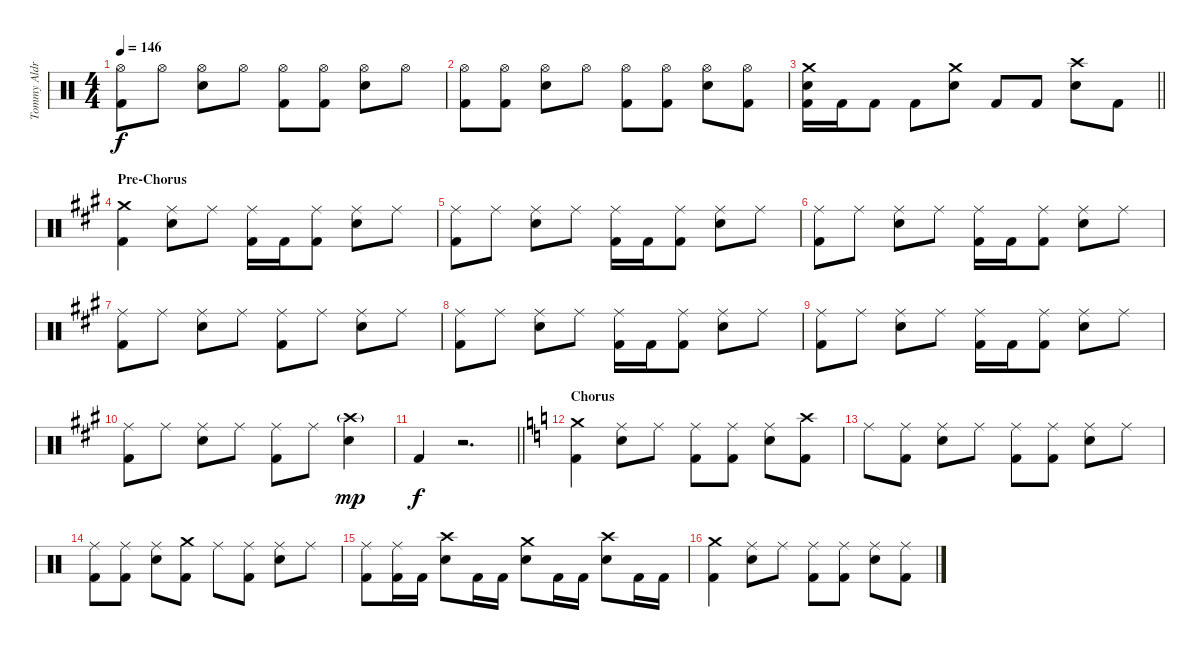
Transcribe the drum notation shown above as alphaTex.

\track ("Tommy Aldridge Drums" "Tommy Aldr") {instrument percussion}
\staff {score}
\articulation defaults
\ts (4 4)
\tempo 146
\clef neutral
\ks aminor
("Hi-Hat (open)" "Kick (hit) 2").8{dy f} "Hi-Hat (open)".8 ("Hi-Hat (open)" "Electric Snare (hit)").8 "Hi-Hat (open)".8 ("Hi-Hat (open)" "Kick (hit) 2").8 ("Hi-Hat (open)" "Kick (hit) 2").8 ("Hi-Hat (open)" "Electric Snare (hit)").8 "Hi-Hat (open)".8 |
("Hi-Hat (open)" "Kick (hit) 2").8 ("Hi-Hat (open)" "Kick (hit) 2").8 ("Hi-Hat (open)" "Electric Snare (hit)").8 "Hi-Hat (open)".8 ("Hi-Hat (open)" "Kick (hit) 2").8 ("Hi-Hat (open)" "Kick (hit) 2").8 ("Hi-Hat (open)" "Electric Snare (hit)").8 ("Hi-Hat (open)" "Kick (hit) 2").8 |
\barLineRight lightlight
("Crash medium (hit)" "Electric Snare (hit)" "Kick (hit) 2").16 "Kick (hit) 2".16 "Kick (hit) 2".8 "Kick (hit) 2".8 ("Crash medium (hit)" "Electric Snare (hit)").8 "Kick (hit) 2".8 "Kick (hit) 2".8 ("Crash high (hit)" "Electric Snare (hit)").8 "Kick (hit) 2".8 |
\section ("" "Pre-Chorus")
\ks f#minor
("Crash medium (hit)" "Kick (hit) 2").4 ("Ride (middle)" "Electric Snare (hit)").8 "Ride (middle)".8 ("Ride (middle)" "Kick (hit) 2").16 "Kick (hit) 2".16 ("Ride (middle)" "Kick (hit) 2").8 ("Ride (middle)" "Electric Snare (hit)").8 "Ride (middle)".8 |
("Ride (middle)" "Kick (hit) 2").8 "Ride (middle)".8 ("Ride (middle)" "Electric Snare (hit)").8 "Ride (middle)".8 ("Ride (middle)" "Kick (hit) 2").16 "Kick (hit) 2".16 ("Ride (middle)" "Kick (hit) 2").8 ("Ride (middle)" "Electric Snare (hit)").8 "Ride (middle)".8 |
("Ride (middle)" "Kick (hit) 2").8 "Ride (middle)".8 ("Ride (middle)" "Electric Snare (hit)").8 "Ride (middle)".8 ("Ride (middle)" "Kick (hit) 2").16 "Kick (hit) 2".16 ("Ride (middle)" "Kick (hit) 2").8 ("Ride (middle)" "Electric Snare (hit)").8 "Ride (middle)".8 |
("Ride (middle)" "Kick (hit) 2").8 "Ride (middle)".8 ("Ride (middle)" "Electric Snare (hit)").8 "Ride (middle)".8 ("Ride (middle)" "Kick (hit) 2").8 "Ride (middle)".8 ("Ride (middle)" "Electric Snare (hit)").8 "Ride (middle)".8 |
("Ride (middle)" "Kick (hit) 2").8 "Ride (middle)".8 ("Ride (middle)" "Electric Snare (hit)").8 "Ride (middle)".8 ("Ride (middle)" "Kick (hit) 2").16 "Kick (hit) 2".16 ("Ride (middle)" "Kick (hit) 2").8 ("Ride (middle)" "Electric Snare (hit)").8 "Ride (middle)".8 |
("Ride (middle)" "Kick (hit) 2").8 "Ride (middle)".8 ("Ride (middle)" "Electric Snare (hit)").8 "Ride (middle)".8 ("Ride (middle)" "Kick (hit) 2").16 "Kick (hit) 2".16 ("Ride (middle)" "Kick (hit) 2").8 ("Ride (middle)" "Electric Snare (hit)").8 "Ride (middle)".8 |
("Ride (middle)" "Kick (hit) 2").8 "Ride (middle)".8 ("Ride (middle)" "Electric Snare (hit)").8 "Ride (middle)".8 ("Ride (middle)" "Kick (hit) 2").8 "Ride (middle)".8 ("Crash high (hit)"{g} "Electric Snare (hit)").4{dy mp} |
\barLineRight lightlight "Kick (hit) 2".4{dy f}
r.2{d} |
\section ("" "Chorus")
\ks aminor
("Crash medium (hit)" "Kick (hit) 2").4 ("Ride (middle)" "Electric Snare (hit)").8 "Ride (middle)".8 ("Ride (middle)" "Kick (hit) 2").8 ("Ride (middle)" "Kick (hit) 2").8 ("Ride (middle)" "Electric Snare (hit)").8 ("Crash high (hit)" "Kick (hit) 2").8 |
"Ride (middle)".8 ("Ride (middle)" "Kick (hit) 2").8 ("Ride (middle)" "Electric Snare (hit)").8 "Ride (middle)".8 ("Ride (middle)" "Kick (hit) 2").8 ("Ride (middle)" "Kick (hit) 2").8 ("Ride (middle)" "Electric Snare (hit)").8 "Ride (middle)".8 |
("Ride (middle)" "Kick (hit) 2").8 ("Ride (middle)" "Kick (hit) 2").8 ("Ride (middle)" "Electric Snare (hit)").8 ("Crash medium (hit)" "Kick (hit) 2").8 "Ride (middle)".8 ("Ride (middle)" "Kick (hit) 2").8 ("Ride (middle)" "Electric Snare (hit)").8 "Ride (middle)".8 |
("Ride (middle)" "Kick (hit) 2").8 ("Ride (middle)" "Kick (hit) 2").16 "Kick (hit) 2".16 ("Crash high (hit)" "Electric Snare (hit)").8 "Kick (hit) 2".16 "Kick (hit) 2".16 ("Crash medium (hit)" "Electric Snare (hit)").8 "Kick (hit) 2".16 "Kick (hit) 2".16 ("Crash high (hit)" "Electric Snare (hit)").8 "Kick (hit) 2".16 "Kick (hit) 2".16 |
("Crash medium (hit)" "Kick (hit) 2").4 ("Ride (middle)" "Electric Snare (hit)").8 "Ride (middle)".8 ("Ride (middle)" "Kick (hit) 2").8 ("Ride (middle)" "Kick (hit) 2").8 ("Ride (middle)" "Electric Snare (hit)").8 ("Ride (middle)" "Kick (hit) 2").8
